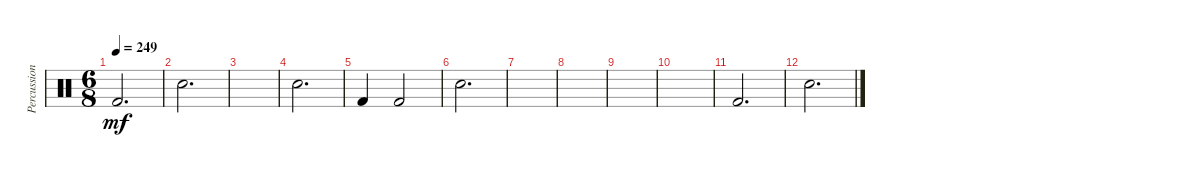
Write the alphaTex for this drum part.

\track ("Percussion" "Percussion") {instrument percussion}
\staff {score}
\articulation defaults
\ts (6 8)
\tempo 249
\clef neutral
\ks c "Kick (hit) 2".2{d dy mf}
|
"Snare (hit) 2".2{d} |
|
"Snare (hit) 2".2{d} |
"Kick (hit) 2".4 "Kick (hit) 2".2 |
"Snare (hit) 2".2{d} |
|
|
|
|
"Kick (hit) 2".2{d} |
"Snare (hit) 2".2{d}
